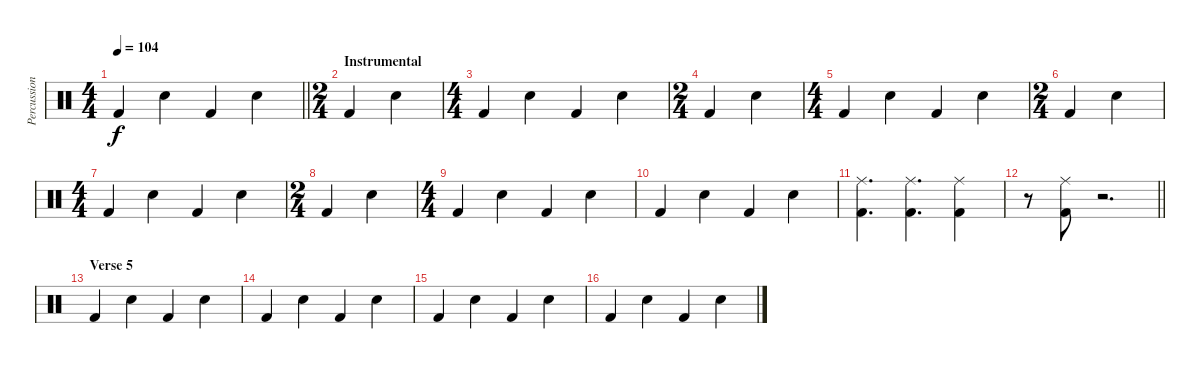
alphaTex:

\track ("Percussion" "Percussion") {instrument percussion}
\staff {score}
\articulation defaults
\ts (4 4)
\tempo 104
\clef neutral
\barLineRight lightlight
\ks c "Kick (hit) 2".4{dy f} "Snare (hit) 2".4 "Kick (hit) 2".4 "Snare (hit) 2".4
|
\ts (2 4)
\section ("" "Instrumental")
"Kick (hit) 2".4 "Snare (hit) 2".4 |
\ts (4 4)
"Kick (hit) 2".4 "Snare (hit) 2".4 "Kick (hit) 2".4 "Snare (hit) 2".4 |
\ts (2 4)
"Kick (hit) 2".4 "Snare (hit) 2".4 |
\ts (4 4)
"Kick (hit) 2".4 "Snare (hit) 2".4 "Kick (hit) 2".4 "Snare (hit) 2".4 |
\ts (2 4)
"Kick (hit) 2".4 "Snare (hit) 2".4 |
\ts (4 4)
"Kick (hit) 2".4 "Snare (hit) 2".4 "Kick (hit) 2".4 "Snare (hit) 2".4 |
\ts (2 4)
"Kick (hit) 2".4 "Snare (hit) 2".4 |
\ts (4 4)
"Kick (hit) 2".4 "Snare (hit) 2".4 "Kick (hit) 2".4 "Snare (hit) 2".4 |
"Kick (hit) 2".4 "Snare (hit) 2".4 "Kick (hit) 2".4 "Snare (hit) 2".4 |
("Ride (middle)" "Kick (hit) 2").4{d} ("Ride (middle)" "Kick (hit) 2").4{d} ("Ride (middle)" "Kick (hit) 2").4 |
\barLineRight lightlight
r.8 ("Ride (middle)" "Kick (hit) 2").8 r.2{d} |
\section ("" "Verse 5")
"Kick (hit) 2".4 "Snare (hit) 2".4 "Kick (hit) 2".4 "Snare (hit) 2".4 |
"Kick (hit) 2".4 "Snare (hit) 2".4 "Kick (hit) 2".4 "Snare (hit) 2".4 |
"Kick (hit) 2".4 "Snare (hit) 2".4 "Kick (hit) 2".4 "Snare (hit) 2".4 |
"Kick (hit) 2".4 "Snare (hit) 2".4 "Kick (hit) 2".4 "Snare (hit) 2".4
